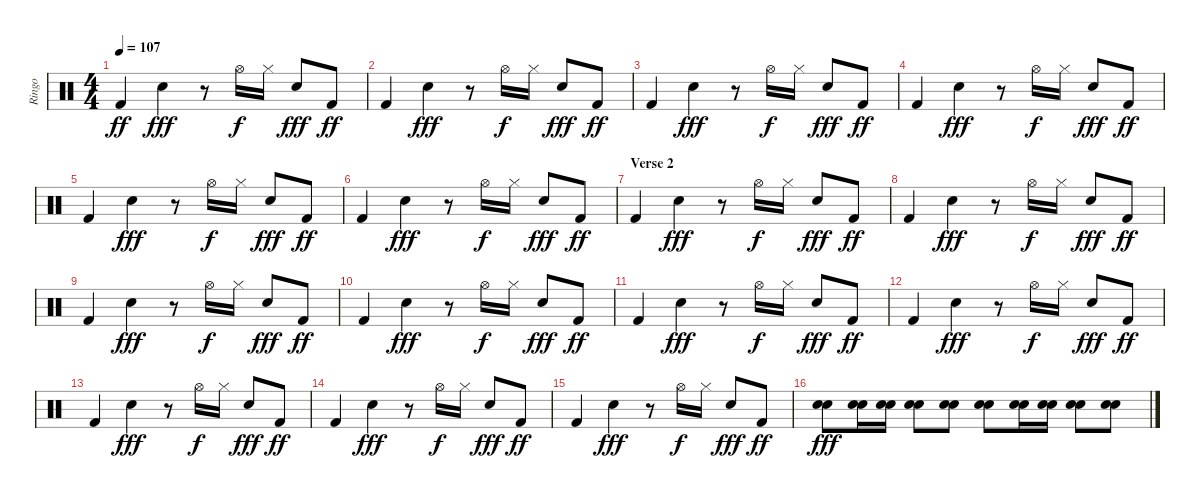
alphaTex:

\track ("Ringo" "Ringo") {instrument percussion}
\staff {score}
\articulation defaults
\ts (4 4)
\tempo 107
\clef neutral
\ks c "Kick (hit) 2".4{dy ff} "Snare (hit) 2".4{dy fff}
r.8 "Hi-Hat (open)".16{dy f} "Hi-Hat (closed)".16 "Snare (hit) 2".8{dy fff} "Kick (hit) 2".8{dy ff} |
"Kick (hit) 2".4 "Snare (hit) 2".4{dy fff} r.8 "Hi-Hat (open)".16{dy f} "Hi-Hat (closed)".16 "Snare (hit) 2".8{dy fff} "Kick (hit) 2".8{dy ff} |
"Kick (hit) 2".4 "Snare (hit) 2".4{dy fff} r.8 "Hi-Hat (open)".16{dy f} "Hi-Hat (closed)".16 "Snare (hit) 2".8{dy fff} "Kick (hit) 2".8{dy ff} |
"Kick (hit) 2".4 "Snare (hit) 2".4{dy fff} r.8 "Hi-Hat (open)".16{dy f} "Hi-Hat (closed)".16 "Snare (hit) 2".8{dy fff} "Kick (hit) 2".8{dy ff} |
"Kick (hit) 2".4 "Snare (hit) 2".4{dy fff} r.8 "Hi-Hat (open)".16{dy f} "Hi-Hat (closed)".16 "Snare (hit) 2".8{dy fff} "Kick (hit) 2".8{dy ff} |
"Kick (hit) 2".4 "Snare (hit) 2".4{dy fff} r.8 "Hi-Hat (open)".16{dy f} "Hi-Hat (closed)".16 "Snare (hit) 2".8{dy fff} "Kick (hit) 2".8{dy ff} |
\section ("" "Verse 2")
"Kick (hit) 2".4 "Snare (hit) 2".4{dy fff} r.8 "Hi-Hat (open)".16{dy f} "Hi-Hat (closed)".16 "Snare (hit) 2".8{dy fff} "Kick (hit) 2".8{dy ff} |
"Kick (hit) 2".4 "Snare (hit) 2".4{dy fff} r.8 "Hi-Hat (open)".16{dy f} "Hi-Hat (closed)".16 "Snare (hit) 2".8{dy fff} "Kick (hit) 2".8{dy ff} |
"Kick (hit) 2".4 "Snare (hit) 2".4{dy fff} r.8 "Hi-Hat (open)".16{dy f} "Hi-Hat (closed)".16 "Snare (hit) 2".8{dy fff} "Kick (hit) 2".8{dy ff} |
"Kick (hit) 2".4 "Snare (hit) 2".4{dy fff} r.8 "Hi-Hat (open)".16{dy f} "Hi-Hat (closed)".16 "Snare (hit) 2".8{dy fff} "Kick (hit) 2".8{dy ff} |
"Kick (hit) 2".4 "Snare (hit) 2".4{dy fff} r.8 "Hi-Hat (open)".16{dy f} "Hi-Hat (closed)".16 "Snare (hit) 2".8{dy fff} "Kick (hit) 2".8{dy ff} |
"Kick (hit) 2".4 "Snare (hit) 2".4{dy fff} r.8 "Hi-Hat (open)".16{dy f} "Hi-Hat (closed)".16 "Snare (hit) 2".8{dy fff} "Kick (hit) 2".8{dy ff} |
"Kick (hit) 2".4 "Snare (hit) 2".4{dy fff} r.8 "Hi-Hat (open)".16{dy f} "Hi-Hat (closed)".16 "Snare (hit) 2".8{dy fff} "Kick (hit) 2".8{dy ff} |
"Kick (hit) 2".4 "Snare (hit) 2".4{dy fff} r.8 "Hi-Hat (open)".16{dy f} "Hi-Hat (closed)".16 "Snare (hit) 2".8{dy fff} "Kick (hit) 2".8{dy ff} |
"Kick (hit) 2".4 "Snare (hit) 2".4{dy fff} r.8 "Hi-Hat (open)".16{dy f} "Hi-Hat (closed)".16 "Snare (hit) 2".8{dy fff} "Kick (hit) 2".8{dy ff} |
("Electric Snare (hit)" "Snare (hit) 2").8{dy fff} ("Electric Snare (hit)" "Snare (hit) 2").16 ("Electric Snare (hit)" "Snare (hit) 2").16 ("Electric Snare (hit)" "Snare (hit) 2").8 ("Electric Snare (hit)" "Snare (hit) 2").8 ("Electric Snare (hit)" "Snare (hit) 2").8 ("Electric Snare (hit)" "Snare (hit) 2").16 ("Electric Snare (hit)" "Snare (hit) 2").16 ("Electric Snare (hit)" "Snare (hit) 2").8 ("Electric Snare (hit)" "Snare (hit) 2").8
